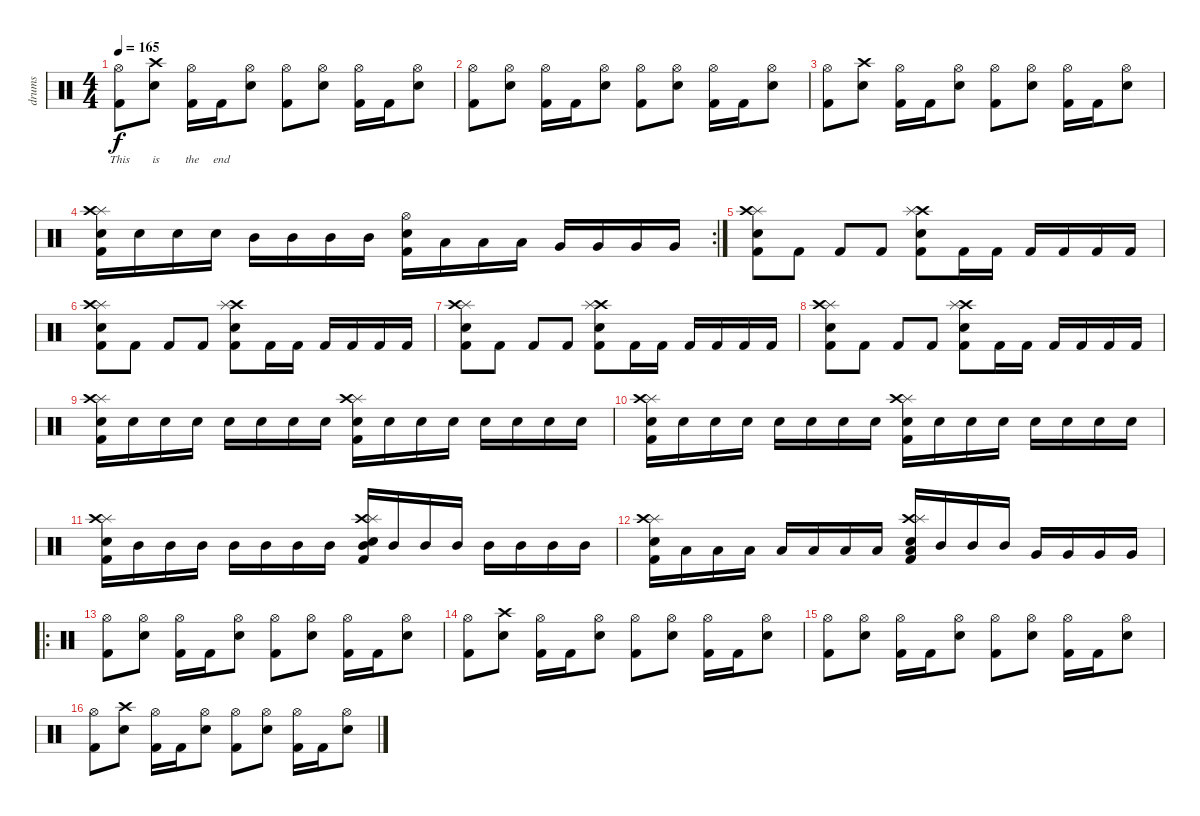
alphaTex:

\track ("drums" "drums") {instrument percussion}
\staff {score}
\articulation defaults
\ts (4 4)
\tempo 165
\clef neutral
\ks c
("Hi-Hat (open)" "Kick (hit) 2").8{lyrics (0 "This") lyrics (1 "") lyrics (2 "") lyrics (3 "") lyrics (4 "") dy f} ("Electric Snare (hit)" "Crash high (hit)").8{lyrics (0 "is") lyrics (1 "") lyrics (2 "") lyrics (3 "") lyrics (4 "")} ("Hi-Hat (open)" "Kick (hit) 2").16{lyrics (0 "the") lyrics (1 "") lyrics (2 "") lyrics (3 "") lyrics (4 "")} "Kick (hit) 2".16{lyrics (0 "end") lyrics (1 "") lyrics (2 "") lyrics (3 "") lyrics (4 "")} ("Electric Snare (hit)" "Hi-Hat (open)").8 ("Hi-Hat (open)" "Kick (hit) 2").8 ("Electric Snare (hit)" "Hi-Hat (open)").8 ("Hi-Hat (open)" "Kick (hit) 2").16 "Kick (hit) 2".16 ("Electric Snare (hit)" "Hi-Hat (open)").8 |
("Hi-Hat (open)" "Kick (hit) 2").8 ("Electric Snare (hit)" "Hi-Hat (open)").8 ("Hi-Hat (open)" "Kick (hit) 2").16 "Kick (hit) 2".16 ("Electric Snare (hit)" "Hi-Hat (open)").8 ("Hi-Hat (open)" "Kick (hit) 2").8 ("Electric Snare (hit)" "Hi-Hat (open)").8 ("Hi-Hat (open)" "Kick (hit) 2").16 "Kick (hit) 2".16 ("Electric Snare (hit)" "Hi-Hat (open)").8 |
("Hi-Hat (open)" "Kick (hit) 2").8 ("Electric Snare (hit)" "Crash high (hit)").8 ("Hi-Hat (open)" "Kick (hit) 2").16 "Kick (hit) 2".16 ("Electric Snare (hit)" "Hi-Hat (open)").8 ("Hi-Hat (open)" "Kick (hit) 2").8 ("Electric Snare (hit)" "Hi-Hat (open)").8 ("Hi-Hat (open)" "Kick (hit) 2").16 "Kick (hit) 2".16 ("Electric Snare (hit)" "Hi-Hat (open)").8 |
\rc 2
("Splash (hit)" "Crash high (hit)" "Electric Snare (hit)" "Kick (hit) 2").16 "Electric Snare (hit)".16 "Electric Snare (hit)".16 "Electric Snare (hit)".16 "Mid Tom (hit)".16 "Mid Tom (hit)".16 "Mid Tom (hit)".16 "Mid Tom (hit)".16 ("Hi-Hat (open)" "Electric Snare (hit)" "Kick (hit) 2").16 "Low Tom (hit)".16 "Low Tom (hit)".16 "Low Tom (hit)".16 "Very Low Tom (hit)".16 "Very Low Tom (hit)".16 "Very Low Tom (hit)".16 "Very Low Tom (hit)".16 |
("Splash (hit)" "Crash high (hit)" "Electric Snare (hit)" "Kick (hit) 2").8 "Kick (hit) 2".8 "Kick (hit) 2".8 "Kick (hit) 2".8 ("Crash high (hit)" "Splash (hit)" "Electric Snare (hit)" "Kick (hit) 2").8 "Kick (hit) 2".16 "Kick (hit) 2".16 "Kick (hit) 2".16 "Kick (hit) 2".16 "Kick (hit) 2".16 "Kick (hit) 2".16 |
("Splash (hit)" "Crash high (hit)" "Electric Snare (hit)" "Kick (hit) 2").8 "Kick (hit) 2".8 "Kick (hit) 2".8 "Kick (hit) 2".8 ("Crash high (hit)" "Splash (hit)" "Electric Snare (hit)" "Kick (hit) 2").8 "Kick (hit) 2".16 "Kick (hit) 2".16 "Kick (hit) 2".16 "Kick (hit) 2".16 "Kick (hit) 2".16 "Kick (hit) 2".16 |
("Splash (hit)" "Crash high (hit)" "Electric Snare (hit)" "Kick (hit) 2").8 "Kick (hit) 2".8 "Kick (hit) 2".8 "Kick (hit) 2".8 ("Crash high (hit)" "Splash (hit)" "Electric Snare (hit)" "Kick (hit) 2").8 "Kick (hit) 2".16 "Kick (hit) 2".16 "Kick (hit) 2".16 "Kick (hit) 2".16 "Kick (hit) 2".16 "Kick (hit) 2".16 |
("Splash (hit)" "Crash high (hit)" "Electric Snare (hit)" "Kick (hit) 2").8 "Kick (hit) 2".8 "Kick (hit) 2".8 "Kick (hit) 2".8 ("Crash high (hit)" "Splash (hit)" "Electric Snare (hit)" "Kick (hit) 2").8 "Kick (hit) 2".16 "Kick (hit) 2".16 "Kick (hit) 2".16 "Kick (hit) 2".16 "Kick (hit) 2".16 "Kick (hit) 2".16 |
("Splash (hit)" "Crash high (hit)" "Electric Snare (hit)" "Kick (hit) 2").16 "Electric Snare (hit)".16 "Electric Snare (hit)".16 "Electric Snare (hit)".16 "Electric Snare (hit)".16 "Electric Snare (hit)".16 "Electric Snare (hit)".16 "Electric Snare (hit)".16 ("Splash (hit)" "Crash high (hit)" "Kick (hit) 2" "Electric Snare (hit)").16 "Electric Snare (hit)".16 "Electric Snare (hit)".16 "Electric Snare (hit)".16 "Electric Snare (hit)".16 "Electric Snare (hit)".16 "Electric Snare (hit)".16 "Electric Snare (hit)".16 |
("Splash (hit)" "Crash high (hit)" "Electric Snare (hit)" "Kick (hit) 2").16 "Electric Snare (hit)".16 "Electric Snare (hit)".16 "Electric Snare (hit)".16 "Electric Snare (hit)".16 "Electric Snare (hit)".16 "Electric Snare (hit)".16 "Electric Snare (hit)".16 ("Splash (hit)" "Crash high (hit)" "Kick (hit) 2" "Electric Snare (hit)").16 "Electric Snare (hit)".16 "Electric Snare (hit)".16 "Electric Snare (hit)".16 "Electric Snare (hit)".16 "Electric Snare (hit)".16 "Electric Snare (hit)".16 "Electric Snare (hit)".16 |
("Splash (hit)" "Crash high (hit)" "Electric Snare (hit)" "Kick (hit) 2").16 "Mid Tom (hit)".16 "Mid Tom (hit)".16 "Mid Tom (hit)".16 "Mid Tom (hit)".16 "Mid Tom (hit)".16 "Mid Tom (hit)".16 "Mid Tom (hit)".16 ("Crash high (hit)" "Electric Snare (hit)" "Splash (hit)" "Kick (hit) 2" "Mid Tom (hit)").16 "Mid Tom (hit)".16 "Mid Tom (hit)".16 "Mid Tom (hit)".16 "Mid Tom (hit)".16 "Mid Tom (hit)".16 "Mid Tom (hit)".16 "Mid Tom (hit)".16 |
("Splash (hit)" "Crash high (hit)" "Electric Snare (hit)" "Kick (hit) 2").16 "Low Tom (hit)".16 "Low Tom (hit)".16 "Low Tom (hit)".16 "Low Tom (hit)".16 "Low Tom (hit)".16 "Low Tom (hit)".16 "Low Tom (hit)".16 ("Crash high (hit)" "Electric Snare (hit)" "Splash (hit)" "Kick (hit) 2" "Low Tom (hit)").16 "Mid Tom (hit)".16 "Mid Tom (hit)".16 "Mid Tom (hit)".16 "Very Low Tom (hit)".16 "Very Low Tom (hit)".16 "Very Low Tom (hit)".16 "Very Low Tom (hit)".16 |
\ro
("Hi-Hat (open)" "Kick (hit) 2").8 ("Electric Snare (hit)" "Hi-Hat (open)").8 ("Hi-Hat (open)" "Kick (hit) 2").16 "Kick (hit) 2".16 ("Electric Snare (hit)" "Hi-Hat (open)").8 ("Hi-Hat (open)" "Kick (hit) 2").8 ("Electric Snare (hit)" "Hi-Hat (open)").8 ("Hi-Hat (open)" "Kick (hit) 2").16 "Kick (hit) 2".16 ("Electric Snare (hit)" "Hi-Hat (open)").8 |
("Hi-Hat (open)" "Kick (hit) 2").8 ("Electric Snare (hit)" "Crash high (hit)").8 ("Hi-Hat (open)" "Kick (hit) 2").16 "Kick (hit) 2".16 ("Electric Snare (hit)" "Hi-Hat (open)").8 ("Hi-Hat (open)" "Kick (hit) 2").8 ("Electric Snare (hit)" "Hi-Hat (open)").8 ("Hi-Hat (open)" "Kick (hit) 2").16 "Kick (hit) 2".16 ("Electric Snare (hit)" "Hi-Hat (open)").8 |
("Hi-Hat (open)" "Kick (hit) 2").8 ("Electric Snare (hit)" "Hi-Hat (open)").8 ("Hi-Hat (open)" "Kick (hit) 2").16 "Kick (hit) 2".16 ("Electric Snare (hit)" "Hi-Hat (open)").8 ("Hi-Hat (open)" "Kick (hit) 2").8 ("Electric Snare (hit)" "Hi-Hat (open)").8 ("Hi-Hat (open)" "Kick (hit) 2").16 "Kick (hit) 2".16 ("Electric Snare (hit)" "Hi-Hat (open)").8 |
("Hi-Hat (open)" "Kick (hit) 2").8 ("Electric Snare (hit)" "Crash high (hit)").8 ("Hi-Hat (open)" "Kick (hit) 2").16 "Kick (hit) 2".16 ("Electric Snare (hit)" "Hi-Hat (open)").8 ("Hi-Hat (open)" "Kick (hit) 2").8 ("Electric Snare (hit)" "Hi-Hat (open)").8 ("Hi-Hat (open)" "Kick (hit) 2").16 "Kick (hit) 2".16 ("Electric Snare (hit)" "Hi-Hat (open)").8
